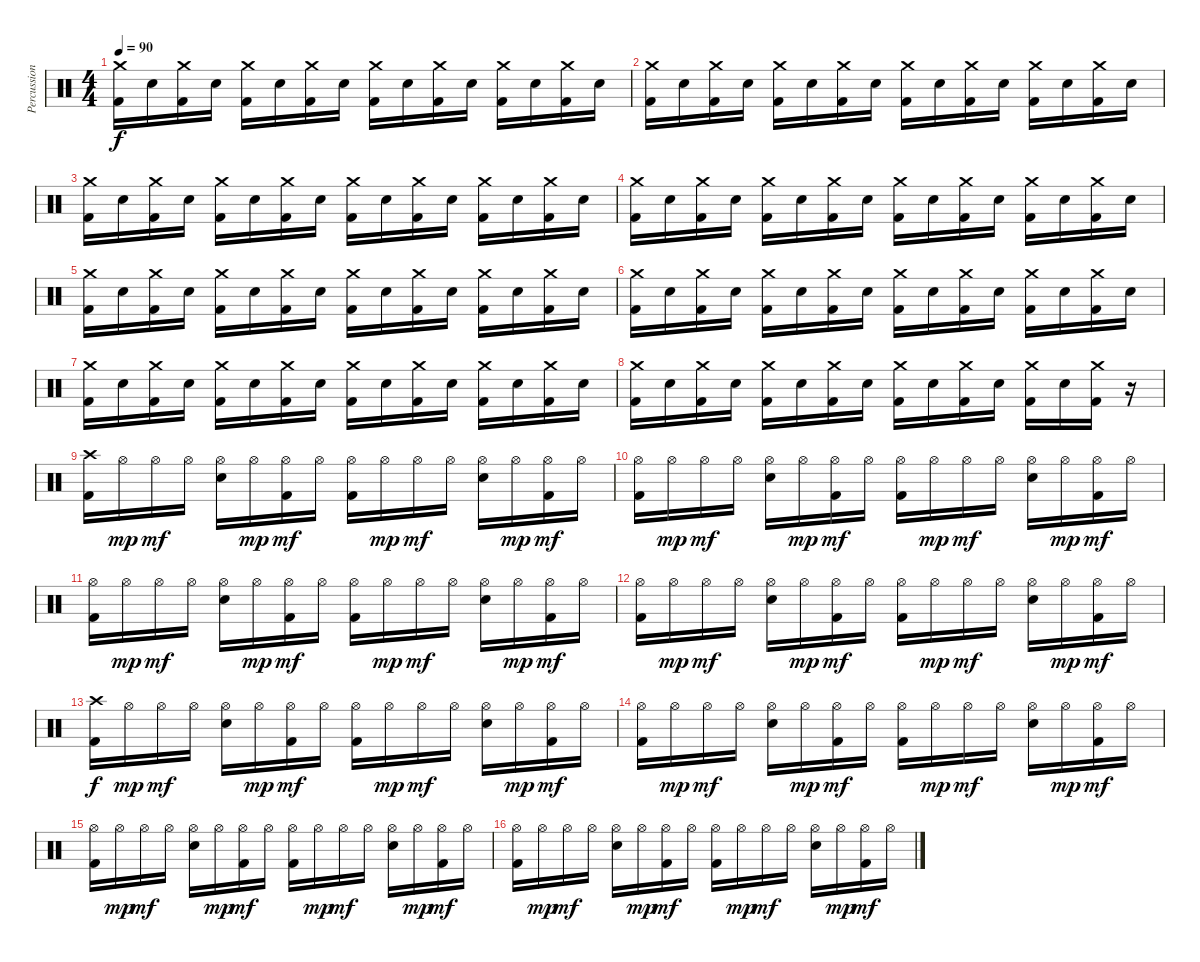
\track ("Percussioni" "Percussion") {instrument percussion}
\staff {score}
\articulation defaults
\ts (4 4)
\tempo 90
\clef neutral
\ks c
("Kick (hit) 2" "Crash medium (hit)").16{dy f} "Electric Snare (hit)".16 ("Kick (hit) 2" "Crash medium (hit)").16 "Electric Snare (hit)".16 ("Kick (hit) 2" "Crash medium (hit)").16 "Electric Snare (hit)".16 ("Kick (hit) 2" "Crash medium (hit)").16 "Electric Snare (hit)".16 ("Kick (hit) 2" "Crash medium (hit)").16 "Electric Snare (hit)".16 ("Kick (hit) 2" "Crash medium (hit)").16 "Electric Snare (hit)".16 ("Kick (hit) 2" "Crash medium (hit)").16 "Electric Snare (hit)".16 ("Kick (hit) 2" "Crash medium (hit)").16 "Electric Snare (hit)".16 |
("Kick (hit) 2" "Crash medium (hit)").16 "Electric Snare (hit)".16 ("Kick (hit) 2" "Crash medium (hit)").16 "Electric Snare (hit)".16 ("Kick (hit) 2" "Crash medium (hit)").16 "Electric Snare (hit)".16 ("Kick (hit) 2" "Crash medium (hit)").16 "Electric Snare (hit)".16 ("Kick (hit) 2" "Crash medium (hit)").16 "Electric Snare (hit)".16 ("Kick (hit) 2" "Crash medium (hit)").16 "Electric Snare (hit)".16 ("Kick (hit) 2" "Crash medium (hit)").16 "Electric Snare (hit)".16 ("Kick (hit) 2" "Crash medium (hit)").16 "Electric Snare (hit)".16 |
("Kick (hit) 2" "Crash medium (hit)").16 "Electric Snare (hit)".16 ("Kick (hit) 2" "Crash medium (hit)").16 "Electric Snare (hit)".16 ("Kick (hit) 2" "Crash medium (hit)").16 "Electric Snare (hit)".16 ("Kick (hit) 2" "Crash medium (hit)").16 "Electric Snare (hit)".16 ("Kick (hit) 2" "Crash medium (hit)").16 "Electric Snare (hit)".16 ("Kick (hit) 2" "Crash medium (hit)").16 "Electric Snare (hit)".16 ("Kick (hit) 2" "Crash medium (hit)").16 "Electric Snare (hit)".16 ("Kick (hit) 2" "Crash medium (hit)").16 "Electric Snare (hit)".16 |
("Kick (hit) 2" "Crash medium (hit)").16 "Electric Snare (hit)".16 ("Kick (hit) 2" "Crash medium (hit)").16 "Electric Snare (hit)".16 ("Kick (hit) 2" "Crash medium (hit)").16 "Electric Snare (hit)".16 ("Kick (hit) 2" "Crash medium (hit)").16 "Electric Snare (hit)".16 ("Kick (hit) 2" "Crash medium (hit)").16 "Electric Snare (hit)".16 ("Kick (hit) 2" "Crash medium (hit)").16 "Electric Snare (hit)".16 ("Kick (hit) 2" "Crash medium (hit)").16 "Electric Snare (hit)".16 ("Kick (hit) 2" "Crash medium (hit)").16 "Electric Snare (hit)".16 |
("Kick (hit) 2" "Crash medium (hit)").16 "Electric Snare (hit)".16 ("Kick (hit) 2" "Crash medium (hit)").16 "Electric Snare (hit)".16 ("Kick (hit) 2" "Crash medium (hit)").16 "Electric Snare (hit)".16 ("Kick (hit) 2" "Crash medium (hit)").16 "Electric Snare (hit)".16 ("Kick (hit) 2" "Crash medium (hit)").16 "Electric Snare (hit)".16 ("Kick (hit) 2" "Crash medium (hit)").16 "Electric Snare (hit)".16 ("Kick (hit) 2" "Crash medium (hit)").16 "Electric Snare (hit)".16 ("Kick (hit) 2" "Crash medium (hit)").16 "Electric Snare (hit)".16 |
("Kick (hit) 2" "Crash medium (hit)").16 "Electric Snare (hit)".16 ("Kick (hit) 2" "Crash medium (hit)").16 "Electric Snare (hit)".16 ("Kick (hit) 2" "Crash medium (hit)").16 "Electric Snare (hit)".16 ("Kick (hit) 2" "Crash medium (hit)").16 "Electric Snare (hit)".16 ("Kick (hit) 2" "Crash medium (hit)").16 "Electric Snare (hit)".16 ("Kick (hit) 2" "Crash medium (hit)").16 "Electric Snare (hit)".16 ("Kick (hit) 2" "Crash medium (hit)").16 "Electric Snare (hit)".16 ("Kick (hit) 2" "Crash medium (hit)").16 "Electric Snare (hit)".16 |
("Kick (hit) 2" "Crash medium (hit)").16 "Electric Snare (hit)".16 ("Kick (hit) 2" "Crash medium (hit)").16 "Electric Snare (hit)".16 ("Kick (hit) 2" "Crash medium (hit)").16 "Electric Snare (hit)".16 ("Kick (hit) 2" "Crash medium (hit)").16 "Electric Snare (hit)".16 ("Kick (hit) 2" "Crash medium (hit)").16 "Electric Snare (hit)".16 ("Kick (hit) 2" "Crash medium (hit)").16 "Electric Snare (hit)".16 ("Kick (hit) 2" "Crash medium (hit)").16 "Electric Snare (hit)".16 ("Kick (hit) 2" "Crash medium (hit)").16 "Electric Snare (hit)".16 |
("Kick (hit) 2" "Crash medium (hit)").16 "Electric Snare (hit)".16 ("Kick (hit) 2" "Crash medium (hit)").16 "Electric Snare (hit)".16 ("Kick (hit) 2" "Crash medium (hit)").16 "Electric Snare (hit)".16 ("Kick (hit) 2" "Crash medium (hit)").16 "Electric Snare (hit)".16 ("Kick (hit) 2" "Crash medium (hit)").16 "Electric Snare (hit)".16 ("Kick (hit) 2" "Crash medium (hit)").16 "Electric Snare (hit)".16 ("Kick (hit) 2" "Crash medium (hit)").16 "Electric Snare (hit)".16 ("Kick (hit) 2" "Crash medium (hit)").16 r.16 |
("Kick (hit) 2" "Crash high (hit)").16 "Hi-Hat (open)".16{dy mp} "Hi-Hat (open)".16{dy mf} "Hi-Hat (open)".16 ("Electric Snare (hit)" "Hi-Hat (open)").16 "Hi-Hat (open)".16{dy mp} ("Kick (hit) 2" "Hi-Hat (open)").16{dy mf} "Hi-Hat (open)".16 ("Kick (hit) 2" "Hi-Hat (open)").16 "Hi-Hat (open)".16{dy mp} "Hi-Hat (open)".16{dy mf} "Hi-Hat (open)".16 ("Electric Snare (hit)" "Hi-Hat (open)").16 "Hi-Hat (open)".16{dy mp} ("Kick (hit) 2" "Hi-Hat (open)").16{dy mf} "Hi-Hat (open)".16 |
("Kick (hit) 2" "Hi-Hat (open)").16 "Hi-Hat (open)".16{dy mp} "Hi-Hat (open)".16{dy mf} "Hi-Hat (open)".16 ("Electric Snare (hit)" "Hi-Hat (open)").16 "Hi-Hat (open)".16{dy mp} ("Kick (hit) 2" "Hi-Hat (open)").16{dy mf} "Hi-Hat (open)".16 ("Kick (hit) 2" "Hi-Hat (open)").16 "Hi-Hat (open)".16{dy mp} "Hi-Hat (open)".16{dy mf} "Hi-Hat (open)".16 ("Electric Snare (hit)" "Hi-Hat (open)").16 "Hi-Hat (open)".16{dy mp} ("Kick (hit) 2" "Hi-Hat (open)").16{dy mf} "Hi-Hat (open)".16 |
("Kick (hit) 2" "Hi-Hat (open)").16 "Hi-Hat (open)".16{dy mp} "Hi-Hat (open)".16{dy mf} "Hi-Hat (open)".16 ("Electric Snare (hit)" "Hi-Hat (open)").16 "Hi-Hat (open)".16{dy mp} ("Kick (hit) 2" "Hi-Hat (open)").16{dy mf} "Hi-Hat (open)".16 ("Kick (hit) 2" "Hi-Hat (open)").16 "Hi-Hat (open)".16{dy mp} "Hi-Hat (open)".16{dy mf} "Hi-Hat (open)".16 ("Electric Snare (hit)" "Hi-Hat (open)").16 "Hi-Hat (open)".16{dy mp} ("Kick (hit) 2" "Hi-Hat (open)").16{dy mf} "Hi-Hat (open)".16 |
("Kick (hit) 2" "Hi-Hat (open)").16 "Hi-Hat (open)".16{dy mp} "Hi-Hat (open)".16{dy mf} "Hi-Hat (open)".16 ("Electric Snare (hit)" "Hi-Hat (open)").16 "Hi-Hat (open)".16{dy mp} ("Kick (hit) 2" "Hi-Hat (open)").16{dy mf} "Hi-Hat (open)".16 ("Kick (hit) 2" "Hi-Hat (open)").16 "Hi-Hat (open)".16{dy mp} "Hi-Hat (open)".16{dy mf} "Hi-Hat (open)".16 ("Electric Snare (hit)" "Hi-Hat (open)").16 "Hi-Hat (open)".16{dy mp} ("Kick (hit) 2" "Hi-Hat (open)").16{dy mf} "Hi-Hat (open)".16 |
("Kick (hit) 2" "Crash high (hit)").16{dy f} "Hi-Hat (open)".16{dy mp} "Hi-Hat (open)".16{dy mf} "Hi-Hat (open)".16 ("Electric Snare (hit)" "Hi-Hat (open)").16 "Hi-Hat (open)".16{dy mp} ("Kick (hit) 2" "Hi-Hat (open)").16{dy mf} "Hi-Hat (open)".16 ("Kick (hit) 2" "Hi-Hat (open)").16 "Hi-Hat (open)".16{dy mp} "Hi-Hat (open)".16{dy mf} "Hi-Hat (open)".16 ("Electric Snare (hit)" "Hi-Hat (open)").16 "Hi-Hat (open)".16{dy mp} ("Kick (hit) 2" "Hi-Hat (open)").16{dy mf} "Hi-Hat (open)".16 |
("Kick (hit) 2" "Hi-Hat (open)").16 "Hi-Hat (open)".16{dy mp} "Hi-Hat (open)".16{dy mf} "Hi-Hat (open)".16 ("Electric Snare (hit)" "Hi-Hat (open)").16 "Hi-Hat (open)".16{dy mp} ("Kick (hit) 2" "Hi-Hat (open)").16{dy mf} "Hi-Hat (open)".16 ("Kick (hit) 2" "Hi-Hat (open)").16 "Hi-Hat (open)".16{dy mp} "Hi-Hat (open)".16{dy mf} "Hi-Hat (open)".16 ("Electric Snare (hit)" "Hi-Hat (open)").16 "Hi-Hat (open)".16{dy mp} ("Kick (hit) 2" "Hi-Hat (open)").16{dy mf} "Hi-Hat (open)".16 |
("Kick (hit) 2" "Hi-Hat (open)").16 "Hi-Hat (open)".16{dy mp} "Hi-Hat (open)".16{dy mf} "Hi-Hat (open)".16 ("Electric Snare (hit)" "Hi-Hat (open)").16 "Hi-Hat (open)".16{dy mp} ("Kick (hit) 2" "Hi-Hat (open)").16{dy mf} "Hi-Hat (open)".16 ("Kick (hit) 2" "Hi-Hat (open)").16 "Hi-Hat (open)".16{dy mp} "Hi-Hat (open)".16{dy mf} "Hi-Hat (open)".16 ("Electric Snare (hit)" "Hi-Hat (open)").16 "Hi-Hat (open)".16{dy mp} ("Kick (hit) 2" "Hi-Hat (open)").16{dy mf} "Hi-Hat (open)".16 |
("Kick (hit) 2" "Hi-Hat (open)").16 "Hi-Hat (open)".16{dy mp} "Hi-Hat (open)".16{dy mf} "Hi-Hat (open)".16 ("Electric Snare (hit)" "Hi-Hat (open)").16 "Hi-Hat (open)".16{dy mp} ("Kick (hit) 2" "Hi-Hat (open)").16{dy mf} "Hi-Hat (open)".16 ("Kick (hit) 2" "Hi-Hat (open)").16 "Hi-Hat (open)".16{dy mp} "Hi-Hat (open)".16{dy mf} "Hi-Hat (open)".16 ("Electric Snare (hit)" "Hi-Hat (open)").16 "Hi-Hat (open)".16{dy mp} ("Kick (hit) 2" "Hi-Hat (open)").16{dy mf} "Hi-Hat (open)".16
